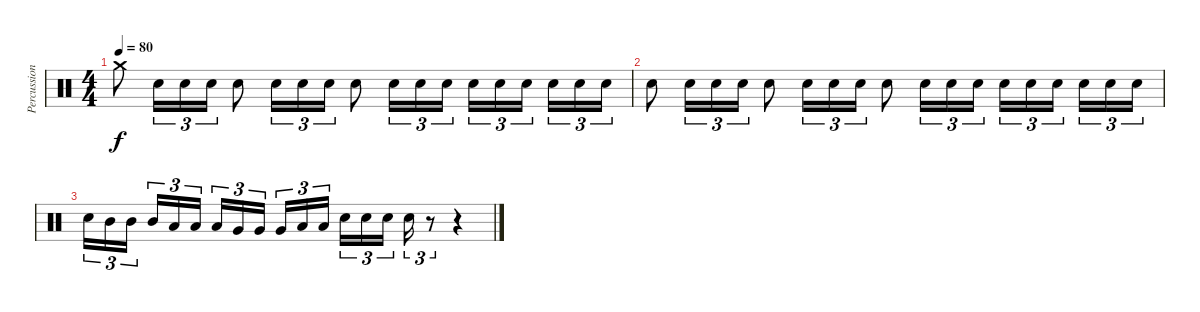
\track ("Percussions" "Percussion") {instrument percussion}
\staff {score}
\articulation defaults
\ts (4 4)
\tempo 80
\clef neutral
\ks c "Crash medium (hit)".8{dy f} "Snare (hit) 2".16{tu (3 2)} "Snare (hit) 2".16{tu (3 2)} "Snare (hit) 2".16{tu (3 2)} "Snare (hit) 2".8 "Snare (hit) 2".16{tu (3 2)} "Snare (hit) 2".16{tu (3 2)} "Snare (hit) 2".16{tu (3 2)} "Snare (hit) 2".8 "Snare (hit) 2".16{tu (3 2)} "Snare (hit) 2".16{tu (3 2)} "Snare (hit) 2".16{tu (3 2)} "Snare (hit) 2".16{tu (3 2)} "Snare (hit) 2".16{tu (3 2)} "Snare (hit) 2".16{tu (3 2)} "Snare (hit) 2".16{tu (3 2)} "Snare (hit) 2".16{tu (3 2)} "Snare (hit) 2".16{tu (3 2)}
|
"Snare (hit) 2".8 "Snare (hit) 2".16{tu (3 2)} "Snare (hit) 2".16{tu (3 2)} "Snare (hit) 2".16{tu (3 2)} "Snare (hit) 2".8 "Snare (hit) 2".16{tu (3 2)} "Snare (hit) 2".16{tu (3 2)} "Snare (hit) 2".16{tu (3 2)} "Snare (hit) 2".8 "Snare (hit) 2".16{tu (3 2)} "Snare (hit) 2".16{tu (3 2)} "Snare (hit) 2".16{tu (3 2)} "Snare (hit) 2".16{tu (3 2)} "Snare (hit) 2".16{tu (3 2)} "Snare (hit) 2".16{tu (3 2)} "Snare (hit) 2".16{tu (3 2)} "Snare (hit) 2".16{tu (3 2)} "Snare (hit) 2".16{tu (3 2)} |
"Snare (hit) 2".16{tu (3 2)} "Mid Tom (hit)".16{tu (3 2)} "Mid Tom (hit)".16{tu (3 2)} "Mid Tom (hit)".16{tu (3 2)} "Low Tom (hit)".16{tu (3 2)} "Low Tom (hit)".16{tu (3 2)} "Low Tom (hit)".16{tu (3 2)} "Very Low Tom (hit)".16{tu (3 2)} "Very Low Tom (hit)".16{tu (3 2)} "Very Low Tom (hit)".16{tu (3 2)} "Low Floor Tom (hit)".16{tu (3 2)} "Low Floor Tom (hit)".16{tu (3 2)} "Snare (hit) 2".16{tu (3 2)} "Snare (hit) 2".16{tu (3 2)} "Snare (hit) 2".16{tu (3 2)} "Snare (hit) 2".16{tu (3 2)} r.8{tu (3 2)} r.4
